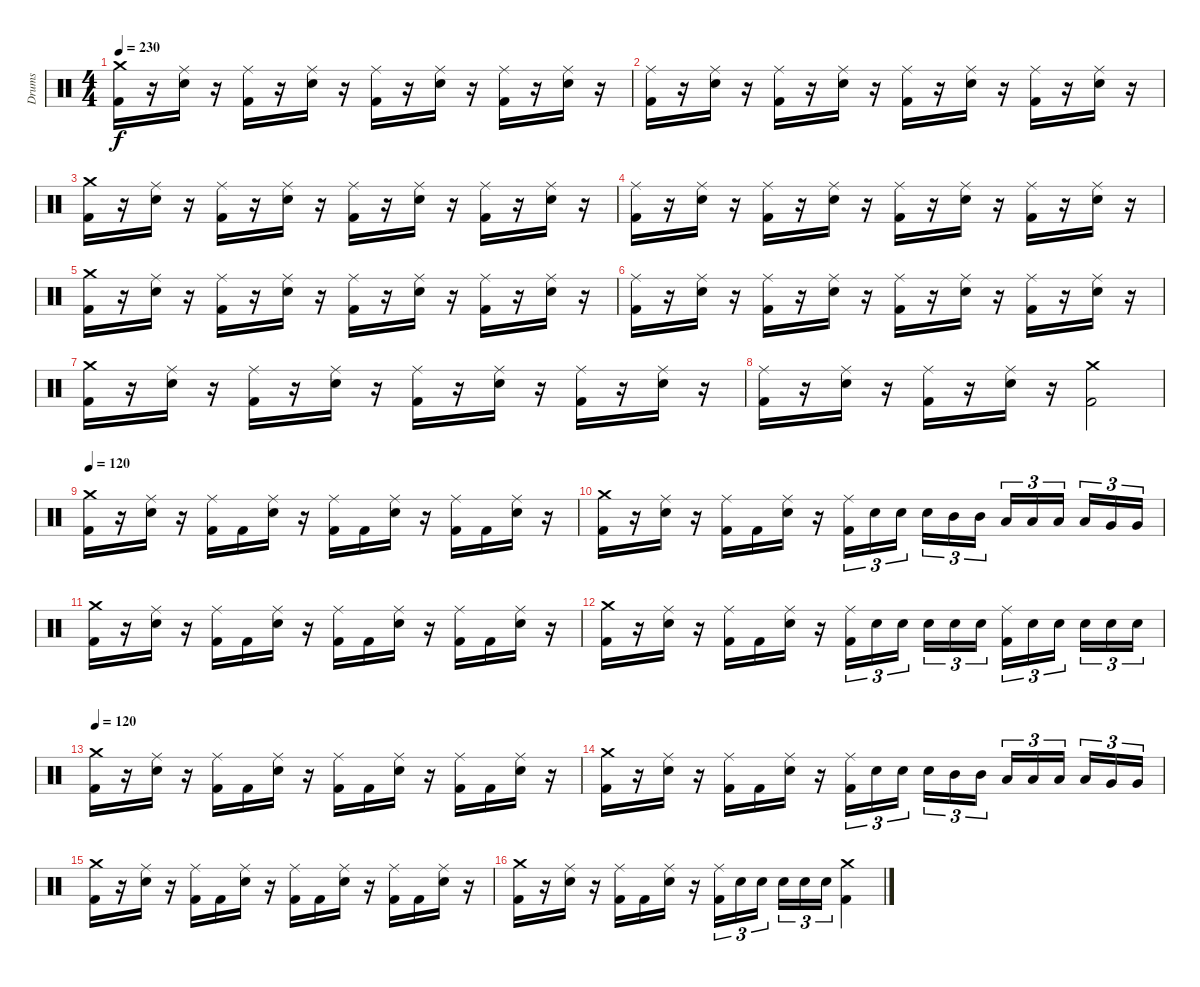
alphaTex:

\track ("Drums" "Drums") {instrument percussion}
\staff {score}
\articulation defaults
\ts (4 4)
\tempo 230
\clef neutral
\ks c
("Crash medium (hit)" "Kick (hit) 2").16{dy f} r.16 ("Ride (middle)" "Electric Snare (hit)").16 r.16 ("Ride (middle)" "Kick (hit) 2").16 r.16 ("Ride (middle)" "Electric Snare (hit)").16 r.16 ("Ride (middle)" "Kick (hit) 2").16 r.16 ("Ride (middle)" "Electric Snare (hit)").16 r.16 ("Ride (middle)" "Kick (hit) 2").16 r.16 ("Ride (middle)" "Electric Snare (hit)").16 r.16 |
("Ride (middle)" "Kick (hit) 2").16 r.16 ("Ride (middle)" "Electric Snare (hit)").16 r.16 ("Ride (middle)" "Kick (hit) 2").16 r.16 ("Ride (middle)" "Electric Snare (hit)").16 r.16 ("Ride (middle)" "Kick (hit) 2").16 r.16 ("Ride (middle)" "Electric Snare (hit)").16 r.16 ("Ride (middle)" "Kick (hit) 2").16 r.16 ("Ride (middle)" "Electric Snare (hit)").16 r.16 |
("Crash medium (hit)" "Kick (hit) 2").16 r.16 ("Ride (middle)" "Electric Snare (hit)").16 r.16 ("Ride (middle)" "Kick (hit) 2").16 r.16 ("Ride (middle)" "Electric Snare (hit)").16 r.16 ("Ride (middle)" "Kick (hit) 2").16 r.16 ("Ride (middle)" "Electric Snare (hit)").16 r.16 ("Ride (middle)" "Kick (hit) 2").16 r.16 ("Ride (middle)" "Electric Snare (hit)").16 r.16 |
("Ride (middle)" "Kick (hit) 2").16 r.16 ("Ride (middle)" "Electric Snare (hit)").16 r.16 ("Ride (middle)" "Kick (hit) 2").16 r.16 ("Ride (middle)" "Electric Snare (hit)").16 r.16 ("Ride (middle)" "Kick (hit) 2").16 r.16 ("Ride (middle)" "Electric Snare (hit)").16 r.16 ("Ride (middle)" "Kick (hit) 2").16 r.16 ("Ride (middle)" "Electric Snare (hit)").16 r.16 |
("Crash medium (hit)" "Kick (hit) 2").16 r.16 ("Ride (middle)" "Electric Snare (hit)").16 r.16 ("Ride (middle)" "Kick (hit) 2").16 r.16 ("Ride (middle)" "Electric Snare (hit)").16 r.16 ("Ride (middle)" "Kick (hit) 2").16 r.16 ("Ride (middle)" "Electric Snare (hit)").16 r.16 ("Ride (middle)" "Kick (hit) 2").16 r.16 ("Ride (middle)" "Electric Snare (hit)").16 r.16 |
("Ride (middle)" "Kick (hit) 2").16 r.16 ("Ride (middle)" "Electric Snare (hit)").16 r.16 ("Ride (middle)" "Kick (hit) 2").16 r.16 ("Ride (middle)" "Electric Snare (hit)").16 r.16 ("Ride (middle)" "Kick (hit) 2").16 r.16 ("Ride (middle)" "Electric Snare (hit)").16 r.16 ("Ride (middle)" "Kick (hit) 2").16 r.16 ("Ride (middle)" "Electric Snare (hit)").16 r.16 |
("Crash medium (hit)" "Kick (hit) 2").16 r.16 ("Ride (middle)" "Electric Snare (hit)").16 r.16 ("Ride (middle)" "Kick (hit) 2").16 r.16 ("Ride (middle)" "Electric Snare (hit)").16 r.16 ("Ride (middle)" "Kick (hit) 2").16 r.16 ("Ride (middle)" "Electric Snare (hit)").16 r.16 ("Ride (middle)" "Kick (hit) 2").16 r.16 ("Ride (middle)" "Electric Snare (hit)").16 r.16 |
("Ride (middle)" "Kick (hit) 2").16 r.16 ("Ride (middle)" "Electric Snare (hit)").16 r.16 ("Ride (middle)" "Kick (hit) 2").16 r.16 ("Ride (middle)" "Electric Snare (hit)").16 r.16 ("Crash medium (hit)" "Kick (hit) 2").2 |
\tempo 130
\tempo 120
("Crash medium (hit)" "Kick (hit) 2").16 r.16 ("Ride (middle)" "Electric Snare (hit)").16 r.16 ("Ride (middle)" "Kick (hit) 2").16 "Kick (hit) 2".16 ("Ride (middle)" "Electric Snare (hit)").16 r.16 ("Ride (middle)" "Kick (hit) 2").16 "Kick (hit) 2".16 ("Ride (middle)" "Electric Snare (hit)").16 r.16 ("Ride (middle)" "Kick (hit) 2").16 "Kick (hit) 2".16 ("Ride (middle)" "Electric Snare (hit)").16 r.16 |
("Crash medium (hit)" "Kick (hit) 2").16 r.16 ("Ride (middle)" "Electric Snare (hit)").16 r.16 ("Ride (middle)" "Kick (hit) 2").16 "Kick (hit) 2".16 ("Ride (middle)" "Electric Snare (hit)").16 r.16 ("Ride (middle)" "Kick (hit) 2").16{tu (3 2)} "Electric Snare (hit)".16{tu (3 2)} "Electric Snare (hit)".16{tu (3 2) beam splitsecondary} "Electric Snare (hit)".16{tu (3 2)} "Mid Tom (hit)".16{tu (3 2)} "Mid Tom (hit)".16{tu (3 2)} "Low Tom (hit)".16{tu (3 2)} "Low Tom (hit)".16{tu (3 2)} "Low Tom (hit)".16{tu (3 2) beam splitsecondary} "Low Tom (hit)".16{tu (3 2)} "Very Low Tom (hit)".16{tu (3 2)} "Very Low Tom (hit)".16{tu (3 2)} |
("Crash medium (hit)" "Kick (hit) 2").16 r.16 ("Ride (middle)" "Electric Snare (hit)").16 r.16 ("Ride (middle)" "Kick (hit) 2").16 "Kick (hit) 2".16 ("Ride (middle)" "Electric Snare (hit)").16 r.16 ("Ride (middle)" "Kick (hit) 2").16 "Kick (hit) 2".16 ("Ride (middle)" "Electric Snare (hit)").16 r.16 ("Ride (middle)" "Kick (hit) 2").16 "Kick (hit) 2".16 ("Ride (middle)" "Electric Snare (hit)").16 r.16 |
("Crash medium (hit)" "Kick (hit) 2").16 r.16 ("Ride (middle)" "Electric Snare (hit)").16 r.16 ("Ride (middle)" "Kick (hit) 2").16 "Kick (hit) 2".16 ("Ride (middle)" "Electric Snare (hit)").16 r.16 ("Ride (middle)" "Kick (hit) 2").16{tu (3 2)} "Electric Snare (hit)".16{tu (3 2)} "Electric Snare (hit)".16{tu (3 2) beam splitsecondary} "Electric Snare (hit)".16{tu (3 2)} "Electric Snare (hit)".16{tu (3 2)} "Electric Snare (hit)".16{tu (3 2)} ("Ride (middle)" "Kick (hit) 2").16{tu (3 2)} "Electric Snare (hit)".16{tu (3 2)} "Electric Snare (hit)".16{tu (3 2) beam splitsecondary} "Electric Snare (hit)".16{tu (3 2)} "Electric Snare (hit)".16{tu (3 2)} "Electric Snare (hit)".16{tu (3 2)} |
\tempo 120
("Crash medium (hit)" "Kick (hit) 2").16 r.16 ("Ride (middle)" "Electric Snare (hit)").16 r.16 ("Ride (middle)" "Kick (hit) 2").16 "Kick (hit) 2".16 ("Ride (middle)" "Electric Snare (hit)").16 r.16 ("Ride (middle)" "Kick (hit) 2").16 "Kick (hit) 2".16 ("Ride (middle)" "Electric Snare (hit)").16 r.16 ("Ride (middle)" "Kick (hit) 2").16 "Kick (hit) 2".16 ("Ride (middle)" "Electric Snare (hit)").16 r.16 |
("Crash medium (hit)" "Kick (hit) 2").16 r.16 ("Ride (middle)" "Electric Snare (hit)").16 r.16 ("Ride (middle)" "Kick (hit) 2").16 "Kick (hit) 2".16 ("Ride (middle)" "Electric Snare (hit)").16 r.16 ("Ride (middle)" "Kick (hit) 2").16{tu (3 2)} "Electric Snare (hit)".16{tu (3 2)} "Electric Snare (hit)".16{tu (3 2) beam splitsecondary} "Electric Snare (hit)".16{tu (3 2)} "Mid Tom (hit)".16{tu (3 2)} "Mid Tom (hit)".16{tu (3 2)} "Low Tom (hit)".16{tu (3 2)} "Low Tom (hit)".16{tu (3 2)} "Low Tom (hit)".16{tu (3 2) beam splitsecondary} "Low Tom (hit)".16{tu (3 2)} "Very Low Tom (hit)".16{tu (3 2)} "Very Low Tom (hit)".16{tu (3 2)} |
("Crash medium (hit)" "Kick (hit) 2").16 r.16 ("Ride (middle)" "Electric Snare (hit)").16 r.16 ("Ride (middle)" "Kick (hit) 2").16 "Kick (hit) 2".16 ("Ride (middle)" "Electric Snare (hit)").16 r.16 ("Ride (middle)" "Kick (hit) 2").16 "Kick (hit) 2".16 ("Ride (middle)" "Electric Snare (hit)").16 r.16 ("Ride (middle)" "Kick (hit) 2").16 "Kick (hit) 2".16 ("Ride (middle)" "Electric Snare (hit)").16 r.16 |
("Crash medium (hit)" "Kick (hit) 2").16 r.16 ("Ride (middle)" "Electric Snare (hit)").16 r.16 ("Ride (middle)" "Kick (hit) 2").16 "Kick (hit) 2".16 ("Ride (middle)" "Electric Snare (hit)").16 r.16 ("Ride (middle)" "Kick (hit) 2").16{tu (3 2)} "Electric Snare (hit)".16{tu (3 2)} "Electric Snare (hit)".16{tu (3 2) beam splitsecondary} "Electric Snare (hit)".16{tu (3 2)} "Electric Snare (hit)".16{tu (3 2)} "Electric Snare (hit)".16{tu (3 2)} ("Crash medium (hit)" "Kick (hit) 2").4
